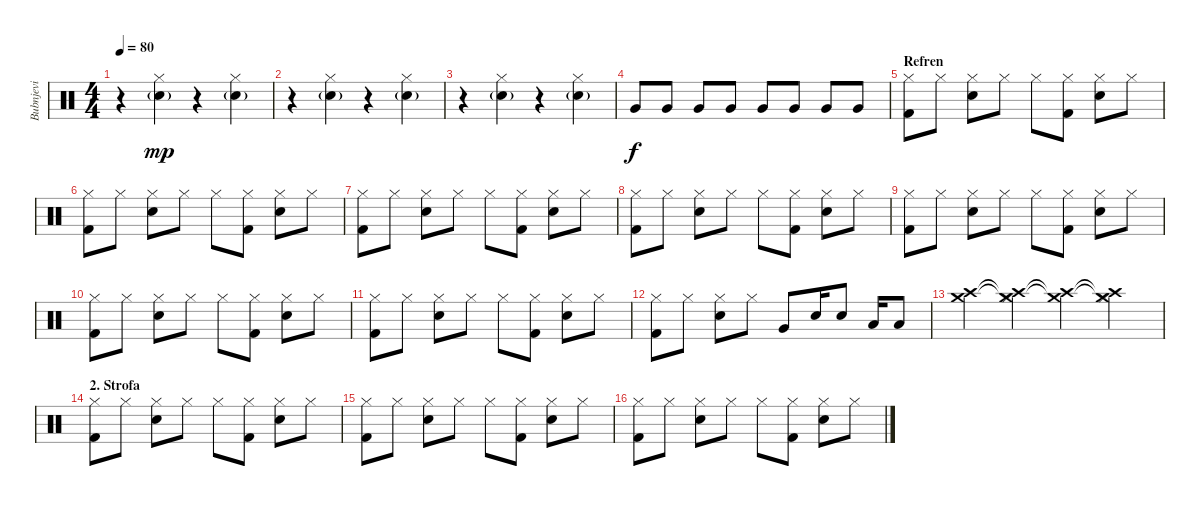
\track ("Bubnjevi" "Bubnjevi") {instrument percussion}
\staff {score}
\articulation defaults
\ts (4 4)
\tempo 80
\clef neutral
\ks c
r.4{dy mp} ("Hi-Hat (closed)" "Electric Snare (hit)"{g}).4 r.4 ("Hi-Hat (closed)" "Electric Snare (hit)"{g}).4 |
r.4 ("Hi-Hat (closed)" "Electric Snare (hit)"{g}).4 r.4 ("Hi-Hat (closed)" "Electric Snare (hit)"{g}).4 |
r.4 ("Hi-Hat (closed)" "Electric Snare (hit)"{g}).4 r.4 ("Hi-Hat (closed)" "Electric Snare (hit)"{g}).4 |
"Very Low Tom (hit)".8{dy f volume 8} "Very Low Tom (hit)".8{volume 16} "Very Low Tom (hit)".8 "Very Low Tom (hit)".8 "Very Low Tom (hit)".8 "Very Low Tom (hit)".8 "Very Low Tom (hit)".8 "Very Low Tom (hit)".8 |
\section ("" "Refren")
("Hi-Hat (closed)" "Kick (hit) 2").8 "Hi-Hat (closed)".8 ("Hi-Hat (closed)" "Electric Snare (hit)").8 "Hi-Hat (closed)".8 "Hi-Hat (closed)".8 ("Hi-Hat (closed)" "Kick (hit) 2").8 ("Hi-Hat (closed)" "Electric Snare (hit)").8 "Hi-Hat (closed)".8 |
("Hi-Hat (closed)" "Kick (hit) 2").8 "Hi-Hat (closed)".8 ("Hi-Hat (closed)" "Electric Snare (hit)").8 "Hi-Hat (closed)".8 "Hi-Hat (closed)".8 ("Hi-Hat (closed)" "Kick (hit) 2").8 ("Hi-Hat (closed)" "Electric Snare (hit)").8 "Hi-Hat (closed)".8 |
("Hi-Hat (closed)" "Kick (hit) 2").8 "Hi-Hat (closed)".8 ("Hi-Hat (closed)" "Electric Snare (hit)").8 "Hi-Hat (closed)".8 "Hi-Hat (closed)".8 ("Hi-Hat (closed)" "Kick (hit) 2").8 ("Hi-Hat (closed)" "Electric Snare (hit)").8 "Hi-Hat (closed)".8 |
("Hi-Hat (closed)" "Kick (hit) 2").8 "Hi-Hat (closed)".8 ("Hi-Hat (closed)" "Electric Snare (hit)").8 "Hi-Hat (closed)".8 "Hi-Hat (closed)".8 ("Hi-Hat (closed)" "Kick (hit) 2").8 ("Hi-Hat (closed)" "Electric Snare (hit)").8 "Hi-Hat (closed)".8 |
("Hi-Hat (closed)" "Kick (hit) 2").8 "Hi-Hat (closed)".8 ("Hi-Hat (closed)" "Electric Snare (hit)").8 "Hi-Hat (closed)".8 "Hi-Hat (closed)".8 ("Hi-Hat (closed)" "Kick (hit) 2").8 ("Hi-Hat (closed)" "Electric Snare (hit)").8 "Hi-Hat (closed)".8 |
("Hi-Hat (closed)" "Kick (hit) 2").8 "Hi-Hat (closed)".8 ("Hi-Hat (closed)" "Electric Snare (hit)").8 "Hi-Hat (closed)".8 "Hi-Hat (closed)".8 ("Hi-Hat (closed)" "Kick (hit) 2").8 ("Hi-Hat (closed)" "Electric Snare (hit)").8 "Hi-Hat (closed)".8 |
("Hi-Hat (closed)" "Kick (hit) 2").8 "Hi-Hat (closed)".8 ("Hi-Hat (closed)" "Electric Snare (hit)").8 "Hi-Hat (closed)".8 "Hi-Hat (closed)".8 ("Hi-Hat (closed)" "Kick (hit) 2").8 ("Hi-Hat (closed)" "Electric Snare (hit)").8 "Hi-Hat (closed)".8 |
("Hi-Hat (closed)" "Kick (hit) 2").8 "Hi-Hat (closed)".8 ("Hi-Hat (closed)" "Electric Snare (hit)").8 "Hi-Hat (closed)".8 "Very Low Tom (hit)".8 "Electric Snare (hit)".16 "Electric Snare (hit)".8 "Low Floor Tom (hit)".16 "Low Floor Tom (hit)".8 |
("Crash high (hit)" "Crash medium (hit)").4 ("Crash high (hit)"{t} "Crash medium (hit)"{t} "Hi-Hat (closed)").4 ("Crash high (hit)"{t} "Crash medium (hit)"{t}).4 ("Crash high (hit)"{t} "Crash medium (hit)"{t} "Hi-Hat (closed)").4 |
\section ("" "2. Strofa")
("Hi-Hat (closed)" "Kick (hit) 2").8 "Hi-Hat (closed)".8 ("Hi-Hat (closed)" "Electric Snare (hit)").8 "Hi-Hat (closed)".8 "Hi-Hat (closed)".8 ("Hi-Hat (closed)" "Kick (hit) 2").8 ("Hi-Hat (closed)" "Electric Snare (hit)").8 "Hi-Hat (closed)".8 |
("Hi-Hat (closed)" "Kick (hit) 2").8 "Hi-Hat (closed)".8 ("Hi-Hat (closed)" "Electric Snare (hit)").8 "Hi-Hat (closed)".8 "Hi-Hat (closed)".8 ("Hi-Hat (closed)" "Kick (hit) 2").8 ("Hi-Hat (closed)" "Electric Snare (hit)").8 "Hi-Hat (closed)".8 |
("Hi-Hat (closed)" "Kick (hit) 2").8 "Hi-Hat (closed)".8 ("Hi-Hat (closed)" "Electric Snare (hit)").8 "Hi-Hat (closed)".8 "Hi-Hat (closed)".8 ("Hi-Hat (closed)" "Kick (hit) 2").8 ("Hi-Hat (closed)" "Electric Snare (hit)").8 "Hi-Hat (closed)".8
